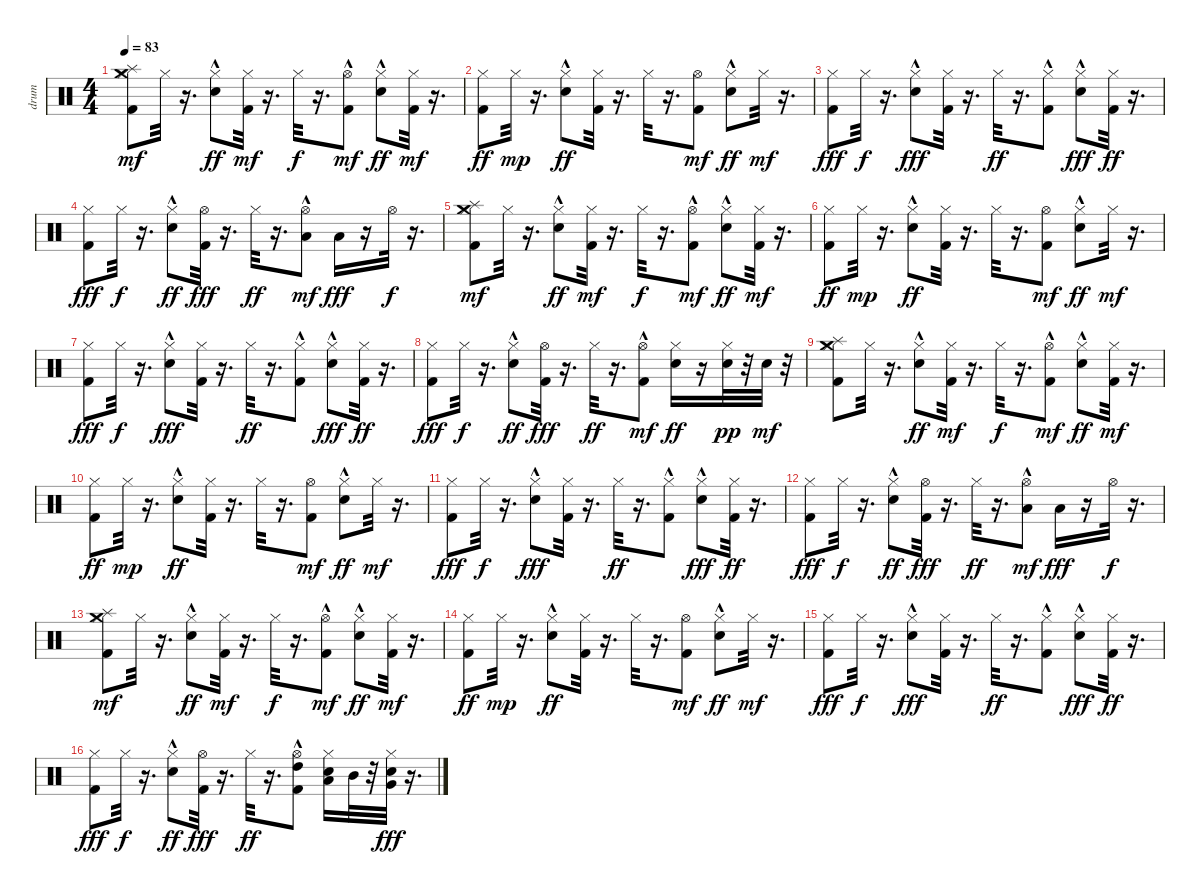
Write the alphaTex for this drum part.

\track ("drum" "drum") {instrument percussion}
\staff {score}
\articulation defaults
\ts (4 4)
\tempo 83
\clef neutral
\ks c
("Kick (hit) 2" "Hi-Hat (closed)" "Splash (hit)" "Crash medium (hit)").8{dy mf} "Hi-Hat (closed)".32 r.16{d} ("Electric Snare (hit)"{hac} "Hi-Hat (closed)").8{dy ff} ("Kick (hit) 2" "Hi-Hat (closed)").32{dy mf} r.16{d} "Hi-Hat (closed)".32{dy f} r.16{d} ("Kick (hit) 2"{hac} "Hi-Hat (open)").8{dy mf} ("Electric Snare (hit)"{hac} "Hi-Hat (closed)").8{dy ff} ("Kick (hit) 2" "Hi-Hat (closed)").32{dy mf} r.16{d} |
("Kick (hit) 2" "Hi-Hat (closed)").8{dy ff} "Hi-Hat (closed)".32{dy mp} r.16{d} ("Electric Snare (hit)"{hac} "Hi-Hat (closed)").8{dy ff} ("Kick (hit) 2" "Hi-Hat (closed)").32 r.16{d} "Hi-Hat (closed)".32 r.16{d} ("Kick (hit) 2" "Hi-Hat (open)").8{dy mf} ("Electric Snare (hit)"{hac} "Hi-Hat (closed)").8{dy ff} "Hi-Hat (closed)".32{dy mf} r.16{d} |
("Kick (hit) 2" "Hi-Hat (closed)").8{dy fff} "Hi-Hat (closed)".32{dy f} r.16{d} ("Electric Snare (hit)"{hac} "Hi-Hat (closed)").8{dy fff} ("Kick (hit) 2" "Hi-Hat (closed)").32 r.16{d} "Hi-Hat (closed)".32{dy ff} r.16{d} ("Kick (hit) 2"{hac} "Hi-Hat (closed)").8 ("Electric Snare (hit)"{hac} "Hi-Hat (closed)").8{dy fff} ("Kick (hit) 2" "Hi-Hat (closed)").32{dy ff} r.16{d} |
("Kick (hit) 2" "Hi-Hat (closed)").8{dy fff} "Hi-Hat (closed)".32{dy f} r.16{d} ("Electric Snare (hit)"{hac} "Hi-Hat (closed)").8{dy ff} ("Kick (hit) 2" "Hi-Hat (open)").32{dy fff} r.16{d} "Hi-Hat (closed)".32{dy ff} r.16{d} ("Low Floor Tom (hit)"{hac} "Hi-Hat (open)").8{dy mf} "Low Tom (hit)".16{dy fff} r.16 "Hi-Hat (open)".32{dy f} r.16{d} |
("Kick (hit) 2" "Hi-Hat (closed)" "Splash (hit)" "Crash medium (hit)").8{dy mf} "Hi-Hat (closed)".32 r.16{d} ("Electric Snare (hit)"{hac} "Hi-Hat (closed)").8{dy ff} ("Kick (hit) 2" "Hi-Hat (closed)").32{dy mf} r.16{d} "Hi-Hat (closed)".32{dy f} r.16{d} ("Kick (hit) 2"{hac} "Hi-Hat (open)").8{dy mf} ("Electric Snare (hit)"{hac} "Hi-Hat (closed)").8{dy ff} ("Kick (hit) 2" "Hi-Hat (closed)").32{dy mf} r.16{d} |
("Kick (hit) 2" "Hi-Hat (closed)").8{dy ff} "Hi-Hat (closed)".32{dy mp} r.16{d} ("Electric Snare (hit)"{hac} "Hi-Hat (closed)").8{dy ff} ("Kick (hit) 2" "Hi-Hat (closed)").32 r.16{d} "Hi-Hat (closed)".32 r.16{d} ("Kick (hit) 2" "Hi-Hat (open)").8{dy mf} ("Electric Snare (hit)"{hac} "Hi-Hat (closed)").8{dy ff} "Hi-Hat (closed)".32{dy mf} r.16{d} |
("Kick (hit) 2" "Hi-Hat (closed)").8{dy fff} "Hi-Hat (closed)".32{dy f} r.16{d} ("Electric Snare (hit)"{hac} "Hi-Hat (closed)").8{dy fff} ("Kick (hit) 2" "Hi-Hat (closed)").32 r.16{d} "Hi-Hat (closed)".32{dy ff} r.16{d} ("Kick (hit) 2"{hac} "Hi-Hat (closed)").8 ("Electric Snare (hit)"{hac} "Hi-Hat (closed)").8{dy fff} ("Kick (hit) 2" "Hi-Hat (closed)").32{dy ff} r.16{d} |
("Kick (hit) 2" "Hi-Hat (closed)").8{dy fff} "Hi-Hat (closed)".32{dy f} r.16{d} ("Electric Snare (hit)"{hac} "Hi-Hat (closed)").8{dy ff} ("Kick (hit) 2" "Hi-Hat (open)").32{dy fff} r.16{d} "Hi-Hat (closed)".32{dy ff} r.16{d} ("Kick (hit) 2"{hac} "Hi-Hat (open)").8{dy mf} ("Electric Snare (hit)" "Hi-Hat (closed)").16{dy ff} r.16 ("Electric Snare (hit)" "Hi-Hat (closed)").32{dy pp} r.32 "Electric Snare (hit)".32{dy mf} r.32 |
("Kick (hit) 2" "Hi-Hat (closed)" "Splash (hit)" "Crash medium (hit)").8 "Hi-Hat (closed)".32 r.16{d} ("Electric Snare (hit)"{hac} "Hi-Hat (closed)").8{dy ff} ("Kick (hit) 2" "Hi-Hat (closed)").32{dy mf} r.16{d} "Hi-Hat (closed)".32{dy f} r.16{d} ("Kick (hit) 2"{hac} "Hi-Hat (open)").8{dy mf} ("Electric Snare (hit)"{hac} "Hi-Hat (closed)").8{dy ff} ("Kick (hit) 2" "Hi-Hat (closed)").32{dy mf} r.16{d} |
("Kick (hit) 2" "Hi-Hat (closed)").8{dy ff} "Hi-Hat (closed)".32{dy mp} r.16{d} ("Electric Snare (hit)"{hac} "Hi-Hat (closed)").8{dy ff} ("Kick (hit) 2" "Hi-Hat (closed)").32 r.16{d} "Hi-Hat (closed)".32 r.16{d} ("Kick (hit) 2" "Hi-Hat (open)").8{dy mf} ("Electric Snare (hit)"{hac} "Hi-Hat (closed)").8{dy ff} "Hi-Hat (closed)".32{dy mf} r.16{d} |
("Kick (hit) 2" "Hi-Hat (closed)").8{dy fff} "Hi-Hat (closed)".32{dy f} r.16{d} ("Electric Snare (hit)"{hac} "Hi-Hat (closed)").8{dy fff} ("Kick (hit) 2" "Hi-Hat (closed)").32 r.16{d} "Hi-Hat (closed)".32{dy ff} r.16{d} ("Kick (hit) 2"{hac} "Hi-Hat (closed)").8 ("Electric Snare (hit)"{hac} "Hi-Hat (closed)").8{dy fff} ("Kick (hit) 2" "Hi-Hat (closed)").32{dy ff} r.16{d} |
("Kick (hit) 2" "Hi-Hat (closed)").8{dy fff} "Hi-Hat (closed)".32{dy f} r.16{d} ("Electric Snare (hit)"{hac} "Hi-Hat (closed)").8{dy ff} ("Kick (hit) 2" "Hi-Hat (open)").32{dy fff} r.16{d} "Hi-Hat (closed)".32{dy ff} r.16{d} ("Low Floor Tom (hit)"{hac} "Hi-Hat (open)").8{dy mf} "Low Tom (hit)".16{dy fff} r.16 "Hi-Hat (open)".32{dy f} r.16{d} |
("Kick (hit) 2" "Hi-Hat (closed)" "Splash (hit)" "Crash medium (hit)").8{dy mf} "Hi-Hat (closed)".32 r.16{d} ("Electric Snare (hit)"{hac} "Hi-Hat (closed)").8{dy ff} ("Kick (hit) 2" "Hi-Hat (closed)").32{dy mf} r.16{d} "Hi-Hat (closed)".32{dy f} r.16{d} ("Kick (hit) 2"{hac} "Hi-Hat (open)").8{dy mf} ("Electric Snare (hit)"{hac} "Hi-Hat (closed)").8{dy ff} ("Kick (hit) 2" "Hi-Hat (closed)").32{dy mf} r.16{d} |
("Kick (hit) 2" "Hi-Hat (closed)").8{dy ff} "Hi-Hat (closed)".32{dy mp} r.16{d} ("Electric Snare (hit)"{hac} "Hi-Hat (closed)").8{dy ff} ("Kick (hit) 2" "Hi-Hat (closed)").32 r.16{d} "Hi-Hat (closed)".32 r.16{d} ("Kick (hit) 2" "Hi-Hat (open)").8{dy mf} ("Electric Snare (hit)"{hac} "Hi-Hat (closed)").8{dy ff} "Hi-Hat (closed)".32{dy mf} r.16{d} |
("Kick (hit) 2" "Hi-Hat (closed)").8{dy fff} "Hi-Hat (closed)".32{dy f} r.16{d} ("Electric Snare (hit)"{hac} "Hi-Hat (closed)").8{dy fff} ("Kick (hit) 2" "Hi-Hat (closed)").32 r.16{d} "Hi-Hat (closed)".32{dy ff} r.16{d} ("Kick (hit) 2"{hac} "Hi-Hat (closed)").8 ("Electric Snare (hit)"{hac} "Hi-Hat (closed)").8{dy fff} ("Kick (hit) 2" "Hi-Hat (closed)").32{dy ff} r.16{d} |
("Kick (hit) 2" "Hi-Hat (closed)").8{dy fff} "Hi-Hat (closed)".32{dy f} r.16{d} ("Electric Snare (hit)"{hac} "Hi-Hat (closed)").8{dy ff} ("Kick (hit) 2" "Hi-Hat (open)").32{dy fff} r.16{d} "Hi-Hat (closed)".32{dy ff} r.16{d} ("Kick (hit) 2"{hac} "Hi-Hat (open)" "High Tom (hit)").8 ("Electric Snare (hit)" "Hi-Hat (closed)" "Low Tom (hit)").16 "Mid Tom (hit)".32 r.32 ("Electric Snare (hit)" "Hi-Hat (closed)" "Very Low Tom (hit)").32{dy fff} r.16{d}
